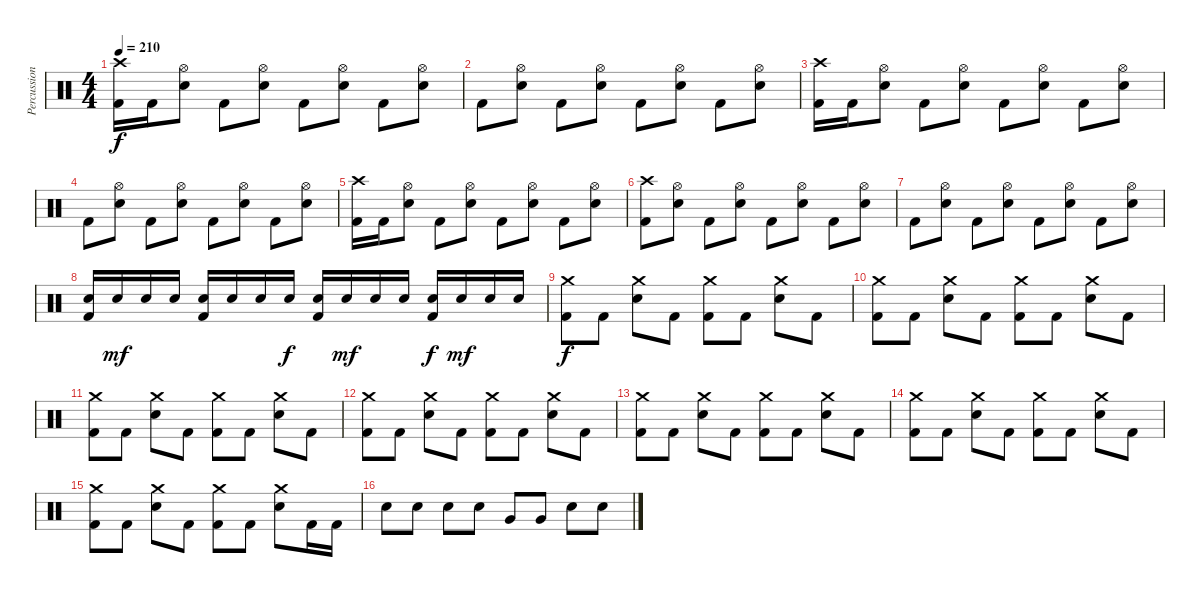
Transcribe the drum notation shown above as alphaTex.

\track ("Percussions" "Percussion") {instrument percussion}
\staff {score}
\articulation defaults
\ts (4 4)
\tempo 210
\clef neutral
\ks c
("Kick (hit) 2" "Crash high (hit)").16{dy f} "Kick (hit) 2".16 ("Electric Snare (hit)" "Hi-Hat (open)").8 "Kick (hit) 2".8 ("Electric Snare (hit)" "Hi-Hat (open)").8 "Kick (hit) 2".8 ("Electric Snare (hit)" "Hi-Hat (open)").8 "Kick (hit) 2".8 ("Electric Snare (hit)" "Hi-Hat (open)").8 |
"Kick (hit) 2".8 ("Electric Snare (hit)" "Hi-Hat (open)").8 "Kick (hit) 2".8 ("Electric Snare (hit)" "Hi-Hat (open)").8 "Kick (hit) 2".8 ("Electric Snare (hit)" "Hi-Hat (open)").8 "Kick (hit) 2".8 ("Electric Snare (hit)" "Hi-Hat (open)").8 |
("Kick (hit) 2" "Crash high (hit)").16 "Kick (hit) 2".16 ("Electric Snare (hit)" "Hi-Hat (open)").8 "Kick (hit) 2".8 ("Electric Snare (hit)" "Hi-Hat (open)").8 "Kick (hit) 2".8 ("Electric Snare (hit)" "Hi-Hat (open)").8 "Kick (hit) 2".8 ("Electric Snare (hit)" "Hi-Hat (open)").8 |
"Kick (hit) 2".8 ("Electric Snare (hit)" "Hi-Hat (open)").8 "Kick (hit) 2".8 ("Electric Snare (hit)" "Hi-Hat (open)").8 "Kick (hit) 2".8 ("Electric Snare (hit)" "Hi-Hat (open)").8 "Kick (hit) 2".8 ("Electric Snare (hit)" "Hi-Hat (open)").8 |
("Kick (hit) 2" "Crash high (hit)").16 "Kick (hit) 2".16 ("Electric Snare (hit)" "Hi-Hat (open)").8 "Kick (hit) 2".8 ("Electric Snare (hit)" "Hi-Hat (open)").8 "Kick (hit) 2".8 ("Electric Snare (hit)" "Hi-Hat (open)").8 "Kick (hit) 2".8 ("Electric Snare (hit)" "Hi-Hat (open)").8 |
("Kick (hit) 2" "Crash high (hit)").8 ("Electric Snare (hit)" "Hi-Hat (open)").8 "Kick (hit) 2".8 ("Electric Snare (hit)" "Hi-Hat (open)").8 "Kick (hit) 2".8 ("Electric Snare (hit)" "Hi-Hat (open)").8 "Kick (hit) 2".8 ("Electric Snare (hit)" "Hi-Hat (open)").8 |
"Kick (hit) 2".8 ("Electric Snare (hit)" "Hi-Hat (open)").8 "Kick (hit) 2".8 ("Electric Snare (hit)" "Hi-Hat (open)").8 "Kick (hit) 2".8 ("Electric Snare (hit)" "Hi-Hat (open)").8 "Kick (hit) 2".8 ("Electric Snare (hit)" "Hi-Hat (open)").8 |
("Kick (hit) 2" "Electric Snare (hit)").16 "Electric Snare (hit)".16{dy mf} "Electric Snare (hit)".16 "Electric Snare (hit)".16 ("Kick (hit) 2" "Electric Snare (hit)").16 "Electric Snare (hit)".16 "Electric Snare (hit)".16 "Electric Snare (hit)".16{dy f} ("Kick (hit) 2" "Electric Snare (hit)").16 "Electric Snare (hit)".16{dy mf} "Electric Snare (hit)".16 "Electric Snare (hit)".16 ("Kick (hit) 2" "Electric Snare (hit)").16{dy f} "Electric Snare (hit)".16{dy mf} "Electric Snare (hit)".16 "Electric Snare (hit)".16 |
("Kick (hit) 2" "Crash medium (hit)").8{dy f} "Kick (hit) 2".8 ("Electric Snare (hit)" "Crash medium (hit)").8 "Kick (hit) 2".8 ("Kick (hit) 2" "Crash medium (hit)").8 "Kick (hit) 2".8 ("Electric Snare (hit)" "Crash medium (hit)").8 "Kick (hit) 2".8 |
("Kick (hit) 2" "Crash medium (hit)").8 "Kick (hit) 2".8 ("Electric Snare (hit)" "Crash medium (hit)").8 "Kick (hit) 2".8 ("Kick (hit) 2" "Crash medium (hit)").8 "Kick (hit) 2".8 ("Electric Snare (hit)" "Crash medium (hit)").8 "Kick (hit) 2".8 |
("Kick (hit) 2" "Crash medium (hit)").8 "Kick (hit) 2".8 ("Electric Snare (hit)" "Crash medium (hit)").8 "Kick (hit) 2".8 ("Kick (hit) 2" "Crash medium (hit)").8 "Kick (hit) 2".8 ("Electric Snare (hit)" "Crash medium (hit)").8 "Kick (hit) 2".8 |
("Kick (hit) 2" "Crash medium (hit)").8 "Kick (hit) 2".8 ("Electric Snare (hit)" "Crash medium (hit)").8 "Kick (hit) 2".8 ("Kick (hit) 2" "Crash medium (hit)").8 "Kick (hit) 2".8 ("Electric Snare (hit)" "Crash medium (hit)").8 "Kick (hit) 2".8 |
("Kick (hit) 2" "Crash medium (hit)").8 "Kick (hit) 2".8 ("Electric Snare (hit)" "Crash medium (hit)").8 "Kick (hit) 2".8 ("Kick (hit) 2" "Crash medium (hit)").8 "Kick (hit) 2".8 ("Electric Snare (hit)" "Crash medium (hit)").8 "Kick (hit) 2".8 |
("Kick (hit) 2" "Crash medium (hit)").8 "Kick (hit) 2".8 ("Electric Snare (hit)" "Crash medium (hit)").8 "Kick (hit) 2".8 ("Kick (hit) 2" "Crash medium (hit)").8 "Kick (hit) 2".8 ("Electric Snare (hit)" "Crash medium (hit)").8 "Kick (hit) 2".8 |
("Kick (hit) 2" "Crash medium (hit)").8 "Kick (hit) 2".8 ("Electric Snare (hit)" "Crash medium (hit)").8 "Kick (hit) 2".8 ("Kick (hit) 2" "Crash medium (hit)").8 "Kick (hit) 2".8 ("Electric Snare (hit)" "Crash medium (hit)").8 "Kick (hit) 2".16 "Kick (hit) 2".16 |
"Electric Snare (hit)".8 "Electric Snare (hit)".8 "Electric Snare (hit)".8 "Electric Snare (hit)".8 "Very Low Tom (hit)".8 "Very Low Tom (hit)".8 "Electric Snare (hit)".8 "Electric Snare (hit)".8
